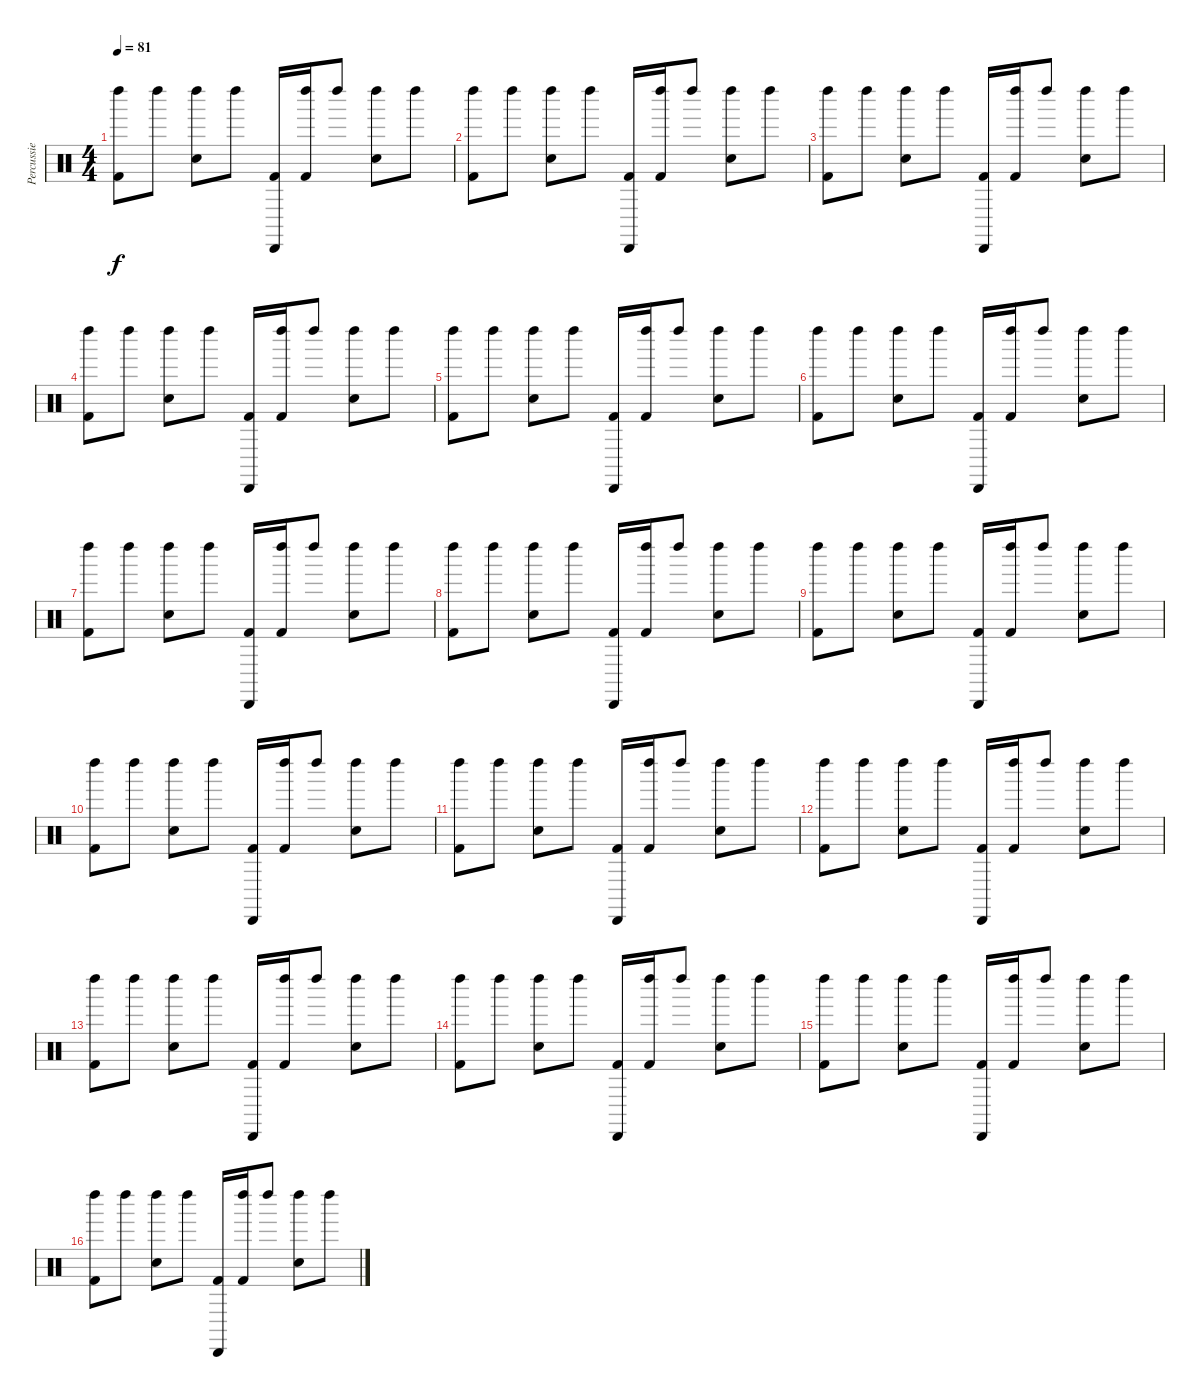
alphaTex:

\track ("Percussie" "Percussie") {instrument percussion}
\staff {score}
\articulation defaults
\ts (4 4)
\tempo 81
\clef neutral
\ks c
("Left Maraca (hit)" "Kick (hit) 2").8{dy f} "Left Maraca (hit)".8 ("Left Maraca (hit)" "Electric Snare (hit)").8 "Left Maraca (hit)".8 ("Cabasa (hit)" "Kick (hit) 2").16 ("Left Maraca (hit)" "Kick (hit) 2").16 "Left Maraca (hit)".8 ("Left Maraca (hit)" "Electric Snare (hit)").8 "Left Maraca (hit)".8 |
("Left Maraca (hit)" "Kick (hit) 2").8 "Left Maraca (hit)".8 ("Left Maraca (hit)" "Electric Snare (hit)").8 "Left Maraca (hit)".8 ("Cabasa (hit)" "Kick (hit) 2").16 ("Left Maraca (hit)" "Kick (hit) 2").16 "Left Maraca (hit)".8 ("Left Maraca (hit)" "Electric Snare (hit)").8 "Left Maraca (hit)".8 |
("Left Maraca (hit)" "Kick (hit) 2").8 "Left Maraca (hit)".8 ("Left Maraca (hit)" "Electric Snare (hit)").8 "Left Maraca (hit)".8 ("Cabasa (hit)" "Kick (hit) 2").16 ("Left Maraca (hit)" "Kick (hit) 2").16 "Left Maraca (hit)".8 ("Left Maraca (hit)" "Electric Snare (hit)").8 "Left Maraca (hit)".8 |
("Left Maraca (hit)" "Kick (hit) 2").8 "Left Maraca (hit)".8 ("Left Maraca (hit)" "Electric Snare (hit)").8 "Left Maraca (hit)".8 ("Cabasa (hit)" "Kick (hit) 2").16 ("Left Maraca (hit)" "Kick (hit) 2").16 "Left Maraca (hit)".8 ("Left Maraca (hit)" "Electric Snare (hit)").8 "Left Maraca (hit)".8 |
("Left Maraca (hit)" "Kick (hit) 2").8 "Left Maraca (hit)".8 ("Left Maraca (hit)" "Electric Snare (hit)").8 "Left Maraca (hit)".8 ("Cabasa (hit)" "Kick (hit) 2").16 ("Left Maraca (hit)" "Kick (hit) 2").16 "Left Maraca (hit)".8 ("Left Maraca (hit)" "Electric Snare (hit)").8 "Left Maraca (hit)".8 |
("Left Maraca (hit)" "Kick (hit) 2").8 "Left Maraca (hit)".8 ("Left Maraca (hit)" "Electric Snare (hit)").8 "Left Maraca (hit)".8 ("Cabasa (hit)" "Kick (hit) 2").16 ("Left Maraca (hit)" "Kick (hit) 2").16 "Left Maraca (hit)".8 ("Left Maraca (hit)" "Electric Snare (hit)").8 "Left Maraca (hit)".8 |
("Left Maraca (hit)" "Kick (hit) 2").8 "Left Maraca (hit)".8 ("Left Maraca (hit)" "Electric Snare (hit)").8 "Left Maraca (hit)".8 ("Cabasa (hit)" "Kick (hit) 2").16 ("Left Maraca (hit)" "Kick (hit) 2").16 "Left Maraca (hit)".8 ("Left Maraca (hit)" "Electric Snare (hit)").8 "Left Maraca (hit)".8 |
("Left Maraca (hit)" "Kick (hit) 2").8 "Left Maraca (hit)".8 ("Left Maraca (hit)" "Electric Snare (hit)").8 "Left Maraca (hit)".8 ("Cabasa (hit)" "Kick (hit) 2").16 ("Left Maraca (hit)" "Kick (hit) 2").16 "Left Maraca (hit)".8 ("Left Maraca (hit)" "Electric Snare (hit)").8 "Left Maraca (hit)".8 |
("Left Maraca (hit)" "Kick (hit) 2").8 "Left Maraca (hit)".8 ("Left Maraca (hit)" "Electric Snare (hit)").8 "Left Maraca (hit)".8 ("Cabasa (hit)" "Kick (hit) 2").16 ("Left Maraca (hit)" "Kick (hit) 2").16 "Left Maraca (hit)".8 ("Left Maraca (hit)" "Electric Snare (hit)").8 "Left Maraca (hit)".8 |
("Left Maraca (hit)" "Kick (hit) 2").8 "Left Maraca (hit)".8 ("Left Maraca (hit)" "Electric Snare (hit)").8 "Left Maraca (hit)".8 ("Cabasa (hit)" "Kick (hit) 2").16 ("Left Maraca (hit)" "Kick (hit) 2").16 "Left Maraca (hit)".8 ("Left Maraca (hit)" "Electric Snare (hit)").8 "Left Maraca (hit)".8 |
("Left Maraca (hit)" "Kick (hit) 2").8 "Left Maraca (hit)".8 ("Left Maraca (hit)" "Electric Snare (hit)").8 "Left Maraca (hit)".8 ("Cabasa (hit)" "Kick (hit) 2").16 ("Left Maraca (hit)" "Kick (hit) 2").16 "Left Maraca (hit)".8 ("Left Maraca (hit)" "Electric Snare (hit)").8 "Left Maraca (hit)".8 |
("Left Maraca (hit)" "Kick (hit) 2").8 "Left Maraca (hit)".8 ("Left Maraca (hit)" "Electric Snare (hit)").8 "Left Maraca (hit)".8 ("Cabasa (hit)" "Kick (hit) 2").16 ("Left Maraca (hit)" "Kick (hit) 2").16 "Left Maraca (hit)".8 ("Left Maraca (hit)" "Electric Snare (hit)").8 "Left Maraca (hit)".8 |
("Left Maraca (hit)" "Kick (hit) 2").8 "Left Maraca (hit)".8 ("Left Maraca (hit)" "Electric Snare (hit)").8 "Left Maraca (hit)".8 ("Cabasa (hit)" "Kick (hit) 2").16 ("Left Maraca (hit)" "Kick (hit) 2").16 "Left Maraca (hit)".8 ("Left Maraca (hit)" "Electric Snare (hit)").8 "Left Maraca (hit)".8 |
("Left Maraca (hit)" "Kick (hit) 2").8 "Left Maraca (hit)".8 ("Left Maraca (hit)" "Electric Snare (hit)").8 "Left Maraca (hit)".8 ("Cabasa (hit)" "Kick (hit) 2").16 ("Left Maraca (hit)" "Kick (hit) 2").16 "Left Maraca (hit)".8 ("Left Maraca (hit)" "Electric Snare (hit)").8 "Left Maraca (hit)".8 |
("Left Maraca (hit)" "Kick (hit) 2").8 "Left Maraca (hit)".8 ("Left Maraca (hit)" "Electric Snare (hit)").8 "Left Maraca (hit)".8 ("Cabasa (hit)" "Kick (hit) 2").16 ("Left Maraca (hit)" "Kick (hit) 2").16 "Left Maraca (hit)".8 ("Left Maraca (hit)" "Electric Snare (hit)").8 "Left Maraca (hit)".8 |
("Left Maraca (hit)" "Kick (hit) 2").8 "Left Maraca (hit)".8 ("Left Maraca (hit)" "Electric Snare (hit)").8 "Left Maraca (hit)".8 ("Cabasa (hit)" "Kick (hit) 2").16 ("Left Maraca (hit)" "Kick (hit) 2").16 "Left Maraca (hit)".8 ("Left Maraca (hit)" "Electric Snare (hit)").8 "Left Maraca (hit)".8
